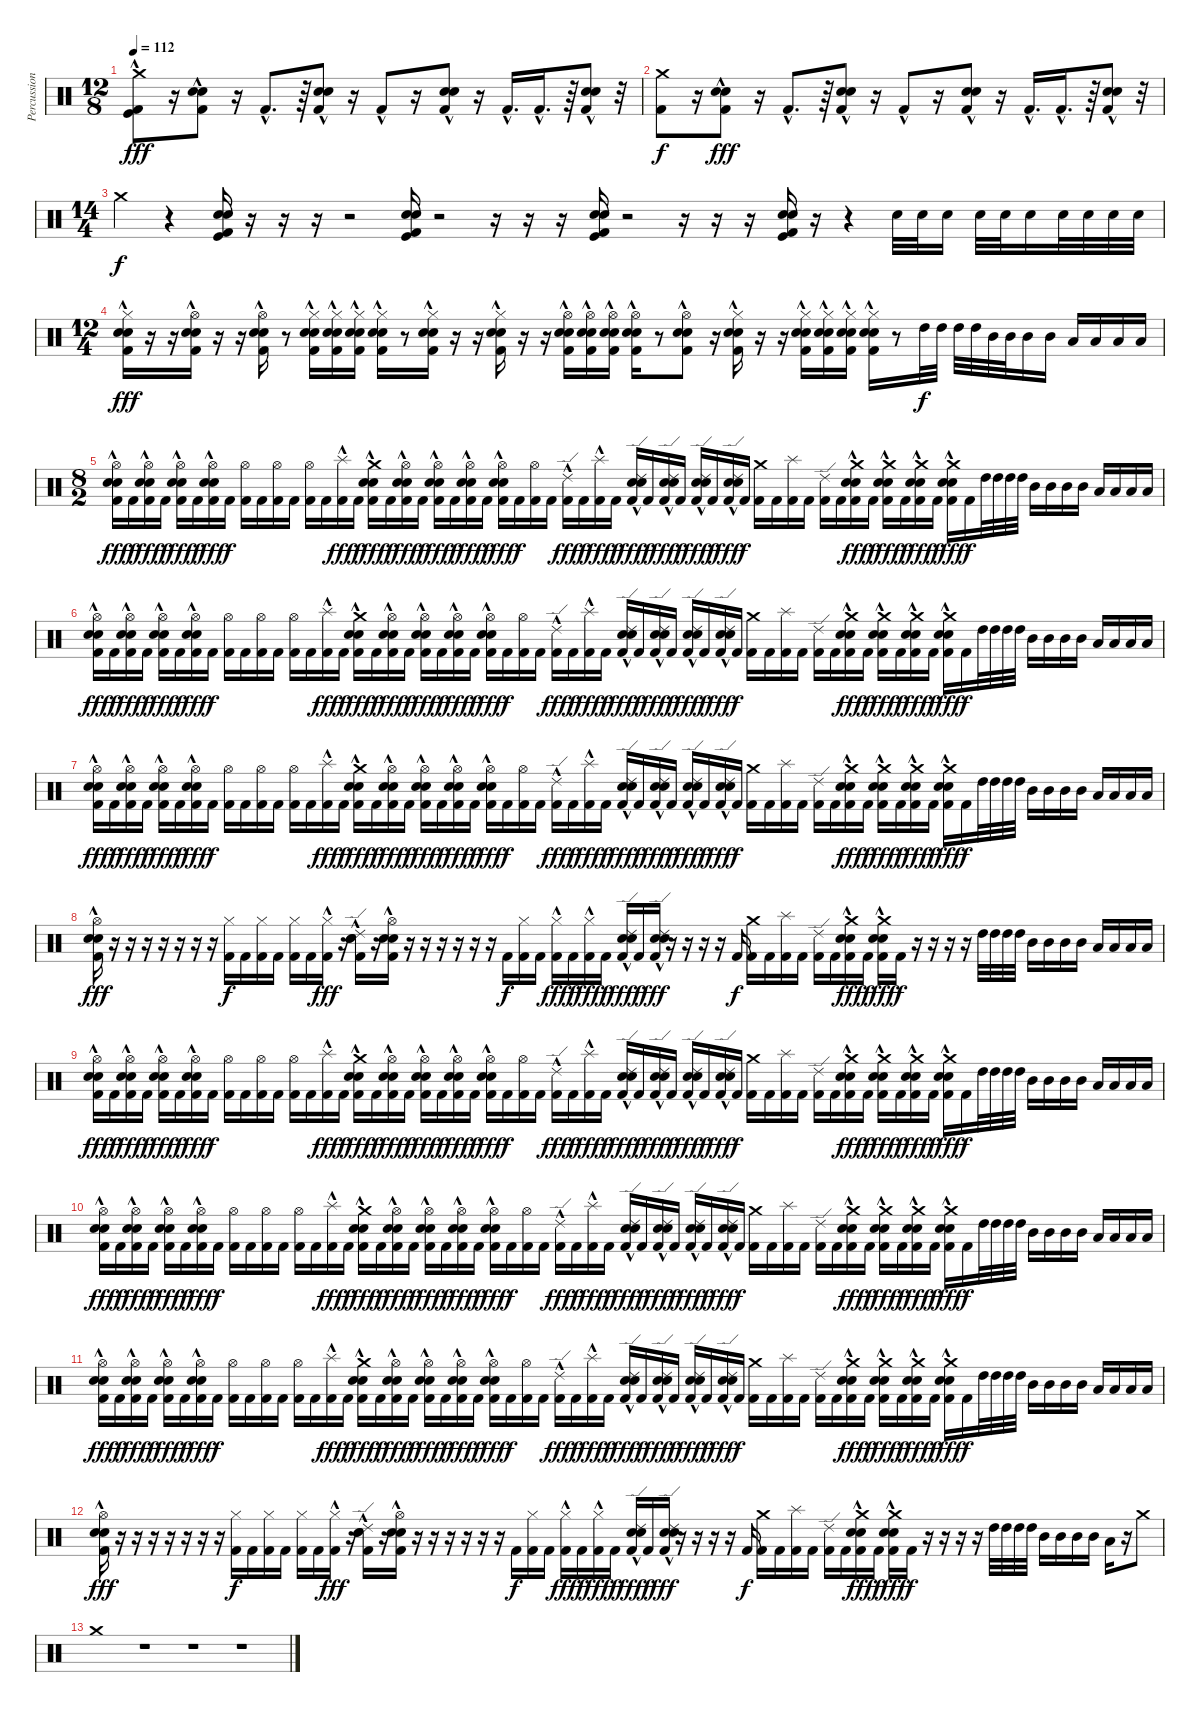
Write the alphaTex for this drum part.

\track ("Percussion" "Percussion") {instrument percussion}
\staff {score}
\articulation defaults
\ts (12 8)
\tempo 112
\clef neutral
\ks c
("Crash medium (hit)"{hac} "Kick (hit)"{hac} "Kick (hit) 2"{hac}).8{dy fff} r.16 ("Electric Snare (hit)"{hac} "Snare (hit) 2"{hac} "Kick (hit) 2").8 r.16 "Kick (hit) 2"{hac}.8{d} r.64 ("Electric Snare (hit)"{hac} "Snare (hit) 2"{hac} "Kick (hit) 2"{hac}).8 r.16 "Kick (hit) 2"{hac}.8 r.16 ("Electric Snare (hit)"{hac} "Snare (hit) 2"{hac} "Kick (hit) 2"{hac}).8 r.16 "Kick (hit) 2"{hac}.16{d} "Kick (hit) 2"{hac}.16{d} r.64 ("Electric Snare (hit)"{hac} "Snare (hit) 2"{hac} "Kick (hit) 2").8 r.32 |
("Crash medium (hit)" "Kick (hit) 2").8{dy f} r.16 ("Electric Snare (hit)"{hac} "Snare (hit) 2"{hac} "Kick (hit) 2").8{dy fff} r.16 "Kick (hit) 2"{hac}.8{d} r.64 ("Electric Snare (hit)"{hac} "Snare (hit) 2"{hac} "Kick (hit) 2"{hac}).8 r.16 "Kick (hit) 2"{hac}.8 r.16 ("Electric Snare (hit)"{hac} "Snare (hit) 2"{hac} "Kick (hit) 2"{hac}).8 r.16 "Kick (hit) 2"{hac}.16{d} "Kick (hit) 2"{hac}.16{d} r.64 ("Electric Snare (hit)"{hac} "Snare (hit) 2"{hac} "Kick (hit) 2").8 r.32 |
\ts (14 4)
"Crash medium (hit)".4{dy f} r.4 ("Kick (hit) 2" "Kick (hit)" "Snare (hit) 2" "Electric Snare (hit)").16 r.16 r.16 r.16 r.2 ("Kick (hit) 2" "Kick (hit)" "Snare (hit) 2" "Electric Snare (hit)").16 r.2 r.16 r.16 r.16 ("Kick (hit) 2" "Kick (hit)" "Snare (hit) 2" "Electric Snare (hit)").16 r.2 r.16 r.16 r.16 ("Electric Snare (hit)" "Kick (hit) 2" "Kick (hit)" "Snare (hit) 2").16 r.16 r.4 "Snare (hit) 2".32 "Snare (hit) 2".32 "Snare (hit) 2".16 "Snare (hit) 2".32 "Snare (hit) 2".32 "Snare (hit) 2".16 "Snare (hit) 2".32 "Snare (hit) 2".32 "Snare (hit) 2".32 "Snare (hit) 2".32 |
\ts (12 4)
("Snare (hit) 2"{hac} "Electric Snare (hit)"{hac} "Hi-Hat (closed)" "Kick (hit) 2").16{dy fff} r.16 r.16 ("Snare (hit) 2"{hac} "Electric Snare (hit)"{hac} "Hi-Hat (open)" "Kick (hit) 2").16 r.16 r.16 ("Snare (hit) 2"{hac} "Electric Snare (hit)"{hac} "Hi-Hat (open)" "Kick (hit) 2").16 r.8 ("Snare (hit) 2"{hac} "Electric Snare (hit)"{hac} "Hi-Hat (closed)" "Kick (hit) 2").16 ("Snare (hit) 2"{hac} "Electric Snare (hit)"{hac} "Hi-Hat (closed)" "Kick (hit) 2").16 ("Snare (hit) 2"{hac} "Electric Snare (hit)"{hac} "Hi-Hat (closed)" "Kick (hit) 2").16 ("Snare (hit) 2"{hac} "Electric Snare (hit)"{hac} "Hi-Hat (closed)" "Kick (hit) 2").16 r.8 ("Snare (hit) 2"{hac} "Electric Snare (hit)"{hac} "Hi-Hat (closed)" "Kick (hit) 2").16 r.16 r.16 ("Electric Snare (hit)"{hac} "Snare (hit) 2"{hac} "Hi-Hat (closed)" "Kick (hit) 2").16 r.16 r.16 ("Snare (hit) 2"{hac} "Electric Snare (hit)"{hac} "Hi-Hat (open)" "Kick (hit) 2").16 ("Snare (hit) 2"{hac} "Electric Snare (hit)"{hac} "Hi-Hat (open)" "Kick (hit) 2").16 ("Snare (hit) 2"{hac} "Electric Snare (hit)"{hac} "Hi-Hat (open)" "Kick (hit) 2").16 ("Snare (hit) 2"{hac} "Electric Snare (hit)"{hac} "Hi-Hat (open)" "Kick (hit) 2").16 r.8 ("Snare (hit) 2"{hac} "Electric Snare (hit)"{hac} "Hi-Hat (open)" "Kick (hit) 2").8 r.16 ("Snare (hit) 2"{hac} "Electric Snare (hit)"{hac} "Hi-Hat (closed)" "Kick (hit) 2").16 r.16 r.16 ("Snare (hit) 2"{hac} "Electric Snare (hit)"{hac} "Hi-Hat (closed)" "Kick (hit) 2").16 ("Snare (hit) 2"{hac} "Electric Snare (hit)"{hac} "Hi-Hat (closed)" "Kick (hit) 2").16 ("Snare (hit) 2"{hac} "Electric Snare (hit)"{hac} "Hi-Hat (closed)" "Kick (hit) 2").16 ("Snare (hit) 2"{hac} "Electric Snare (hit)"{hac} "Hi-Hat (closed)" "Kick (hit) 2").16 r.8 "High Tom (hit)".32{dy f} "High Tom (hit)".32 "High Tom (hit)".32 "High Tom (hit)".32 "Mid Tom (hit)".32 "Mid Tom (hit)".32 "Mid Tom (hit)".16 "Mid Tom (hit)".16 "Low Tom (hit)".16 "Low Tom (hit)".16 "Low Tom (hit)".16 "Low Tom (hit)".16 |
\ts (8 2)
("Hi-Hat (open)" "Electric Snare (hit)"{hac} "Snare (hit) 2"{hac} "Kick (hit) 2").16{dy fff} "Kick (hit) 2".16{dy f} ("Hi-Hat (open)" "Electric Snare (hit)"{hac} "Snare (hit) 2"{hac} "Kick (hit) 2").16{dy fff} "Kick (hit) 2".16{dy f} ("Hi-Hat (open)" "Electric Snare (hit)"{hac} "Snare (hit) 2"{hac} "Kick (hit) 2").16{dy fff} "Kick (hit) 2".16{dy f} ("Hi-Hat (open)" "Electric Snare (hit)"{hac} "Snare (hit) 2"{hac} "Kick (hit) 2").16{dy fff} "Kick (hit) 2".16{dy f} ("Hi-Hat (open)" "Kick (hit) 2").16 "Kick (hit) 2".16 ("Hi-Hat (open)" "Kick (hit) 2").16 "Kick (hit) 2".16 ("Hi-Hat (open)" "Kick (hit) 2").16 "Kick (hit) 2".16 ("Splash (hit)"{hac} "Kick (hit) 2").16{dy fff} "Kick (hit) 2".16{dy f} ("Crash medium (hit)"{hac} "Electric Snare (hit)"{hac} "Snare (hit) 2"{hac} "Kick (hit) 2").16{dy fff} "Kick (hit) 2".16{dy f} ("Hi-Hat (open)" "Electric Snare (hit)"{hac} "Snare (hit) 2"{hac} "Kick (hit) 2").16{dy fff} "Kick (hit) 2".16{dy f} ("Hi-Hat (open)" "Electric Snare (hit)"{hac} "Snare (hit) 2"{hac} "Kick (hit) 2").16{dy fff} "Kick (hit) 2".16{dy f} ("Hi-Hat (open)" "Electric Snare (hit)"{hac} "Snare (hit) 2"{hac} "Kick (hit) 2").16{dy fff} "Kick (hit) 2".16{dy f} ("Hi-Hat (open)" "Electric Snare (hit)"{hac} "Snare (hit) 2"{hac} "Kick (hit) 2").16{dy fff} "Kick (hit) 2".16{dy f} ("Hi-Hat (open)" "Kick (hit) 2").16 "Kick (hit) 2".16 ("Ride (edge) 2"{hac} "Kick (hit) 2").16{dy fff} "Kick (hit) 2".16{dy f} ("Splash (hit)"{hac} "Kick (hit) 2").16{dy fff} "Kick (hit) 2".16{dy f} ("Ride (edge) 2"{hac} "Electric Snare (hit)"{hac} "Snare (hit) 2"{hac} "Kick (hit) 2").16{dy fff} "Kick (hit) 2".16{dy f} ("Ride (edge) 2"{hac} "Electric Snare (hit)"{hac} "Snare (hit) 2"{hac} "Kick (hit) 2").16{dy fff} "Kick (hit) 2".16{dy f} ("Ride (edge) 2"{hac} "Electric Snare (hit)"{hac} "Snare (hit) 2"{hac} "Kick (hit) 2").16{dy fff} "Kick (hit) 2".16{dy f} ("Ride (edge) 2"{hac} "Electric Snare (hit)"{hac} "Snare (hit) 2"{hac} "Kick (hit) 2").16{dy fff} "Kick (hit) 2".16{dy f} ("Crash medium (hit)" "Kick (hit) 2").16 "Kick (hit) 2".16 ("Splash (hit)" "Kick (hit) 2").16 "Kick (hit) 2".16 ("Ride (edge) 2" "Kick (hit) 2").16 "Kick (hit) 2".16 ("Crash medium (hit)" "Electric Snare (hit)"{hac} "Snare (hit) 2"{hac} "Kick (hit) 2").16{dy fff} "Kick (hit) 2".16{dy f} ("Crash medium (hit)" "Electric Snare (hit)"{hac} "Snare (hit) 2"{hac} "Kick (hit) 2").16{dy fff} "Kick (hit) 2".16{dy f} ("Crash medium (hit)" "Electric Snare (hit)"{hac} "Snare (hit) 2"{hac} "Kick (hit) 2").16{dy fff} "Kick (hit) 2".16{dy f} ("Crash medium (hit)" "Electric Snare (hit)"{hac} "Snare (hit) 2"{hac} "Kick (hit) 2").16{dy fff} "Kick (hit) 2".16{dy f} "High Tom (hit)".32 "High Tom (hit)".32 "High Tom (hit)".32 "High Tom (hit)".32 "Mid Tom (hit)".16 "Mid Tom (hit)".16 "Mid Tom (hit)".16 "Mid Tom (hit)".16 "Low Tom (hit)".16 "Low Tom (hit)".16 "Low Tom (hit)".16 "Low Tom (hit)".16 |
("Hi-Hat (open)" "Electric Snare (hit)"{hac} "Snare (hit) 2"{hac} "Kick (hit) 2").16{dy fff} "Kick (hit) 2".16{dy f} ("Hi-Hat (open)" "Electric Snare (hit)"{hac} "Snare (hit) 2"{hac} "Kick (hit) 2").16{dy fff} "Kick (hit) 2".16{dy f} ("Hi-Hat (open)" "Electric Snare (hit)"{hac} "Snare (hit) 2"{hac} "Kick (hit) 2").16{dy fff} "Kick (hit) 2".16{dy f} ("Hi-Hat (open)" "Electric Snare (hit)"{hac} "Snare (hit) 2"{hac} "Kick (hit) 2").16{dy fff} "Kick (hit) 2".16{dy f} ("Hi-Hat (open)" "Kick (hit) 2").16 "Kick (hit) 2".16 ("Hi-Hat (open)" "Kick (hit) 2").16 "Kick (hit) 2".16 ("Hi-Hat (open)" "Kick (hit) 2").16 "Kick (hit) 2".16 ("Splash (hit)"{hac} "Kick (hit) 2").16{dy fff} "Kick (hit) 2".16{dy f} ("Crash medium (hit)"{hac} "Electric Snare (hit)"{hac} "Snare (hit) 2"{hac} "Kick (hit) 2").16{dy fff} "Kick (hit) 2".16{dy f} ("Hi-Hat (open)" "Electric Snare (hit)"{hac} "Snare (hit) 2"{hac} "Kick (hit) 2").16{dy fff} "Kick (hit) 2".16{dy f} ("Hi-Hat (open)" "Electric Snare (hit)"{hac} "Snare (hit) 2"{hac} "Kick (hit) 2").16{dy fff} "Kick (hit) 2".16{dy f} ("Hi-Hat (open)" "Electric Snare (hit)"{hac} "Snare (hit) 2"{hac} "Kick (hit) 2").16{dy fff} "Kick (hit) 2".16{dy f} ("Hi-Hat (open)" "Electric Snare (hit)"{hac} "Snare (hit) 2"{hac} "Kick (hit) 2").16{dy fff} "Kick (hit) 2".16{dy f} ("Hi-Hat (open)" "Kick (hit) 2").16 "Kick (hit) 2".16 ("Ride (edge) 2"{hac} "Kick (hit) 2").16{dy fff} "Kick (hit) 2".16{dy f} ("Splash (hit)"{hac} "Kick (hit) 2").16{dy fff} "Kick (hit) 2".16{dy f} ("Ride (edge) 2"{hac} "Electric Snare (hit)"{hac} "Snare (hit) 2"{hac} "Kick (hit) 2").16{dy fff} "Kick (hit) 2".16{dy f} ("Ride (edge) 2"{hac} "Electric Snare (hit)"{hac} "Snare (hit) 2"{hac} "Kick (hit) 2").16{dy fff} "Kick (hit) 2".16{dy f} ("Ride (edge) 2"{hac} "Electric Snare (hit)"{hac} "Snare (hit) 2"{hac} "Kick (hit) 2").16{dy fff} "Kick (hit) 2".16{dy f} ("Ride (edge) 2"{hac} "Electric Snare (hit)"{hac} "Snare (hit) 2"{hac} "Kick (hit) 2").16{dy fff} "Kick (hit) 2".16{dy f} ("Crash medium (hit)" "Kick (hit) 2").16 "Kick (hit) 2".16 ("Splash (hit)" "Kick (hit) 2").16 "Kick (hit) 2".16 ("Ride (edge) 2" "Kick (hit) 2").16 "Kick (hit) 2".16 ("Crash medium (hit)" "Electric Snare (hit)"{hac} "Snare (hit) 2"{hac} "Kick (hit) 2").16{dy fff} "Kick (hit) 2".16{dy f} ("Crash medium (hit)" "Electric Snare (hit)"{hac} "Snare (hit) 2"{hac} "Kick (hit) 2").16{dy fff} "Kick (hit) 2".16{dy f} ("Crash medium (hit)" "Electric Snare (hit)"{hac} "Snare (hit) 2"{hac} "Kick (hit) 2").16{dy fff} "Kick (hit) 2".16{dy f} ("Crash medium (hit)" "Electric Snare (hit)"{hac} "Snare (hit) 2"{hac} "Kick (hit) 2").16{dy fff} "Kick (hit) 2".16{dy f} "High Tom (hit)".32 "High Tom (hit)".32 "High Tom (hit)".32 "High Tom (hit)".32 "Mid Tom (hit)".16 "Mid Tom (hit)".16 "Mid Tom (hit)".16 "Mid Tom (hit)".16 "Low Tom (hit)".16 "Low Tom (hit)".16 "Low Tom (hit)".16 "Low Tom (hit)".16 |
("Hi-Hat (open)" "Electric Snare (hit)"{hac} "Snare (hit) 2"{hac} "Kick (hit) 2").16{dy fff} "Kick (hit) 2".16{dy f} ("Hi-Hat (open)" "Electric Snare (hit)"{hac} "Snare (hit) 2"{hac} "Kick (hit) 2").16{dy fff} "Kick (hit) 2".16{dy f} ("Hi-Hat (open)" "Electric Snare (hit)"{hac} "Snare (hit) 2"{hac} "Kick (hit) 2").16{dy fff} "Kick (hit) 2".16{dy f} ("Hi-Hat (open)" "Electric Snare (hit)"{hac} "Snare (hit) 2"{hac} "Kick (hit) 2").16{dy fff} "Kick (hit) 2".16{dy f} ("Hi-Hat (open)" "Kick (hit) 2").16 "Kick (hit) 2".16 ("Hi-Hat (open)" "Kick (hit) 2").16 "Kick (hit) 2".16 ("Hi-Hat (open)" "Kick (hit) 2").16 "Kick (hit) 2".16 ("Splash (hit)"{hac} "Kick (hit) 2").16{dy fff} "Kick (hit) 2".16{dy f} ("Crash medium (hit)"{hac} "Electric Snare (hit)"{hac} "Snare (hit) 2"{hac} "Kick (hit) 2").16{dy fff} "Kick (hit) 2".16{dy f} ("Hi-Hat (open)" "Electric Snare (hit)"{hac} "Snare (hit) 2"{hac} "Kick (hit) 2").16{dy fff} "Kick (hit) 2".16{dy f} ("Hi-Hat (open)" "Electric Snare (hit)"{hac} "Snare (hit) 2"{hac} "Kick (hit) 2").16{dy fff} "Kick (hit) 2".16{dy f} ("Hi-Hat (open)" "Electric Snare (hit)"{hac} "Snare (hit) 2"{hac} "Kick (hit) 2").16{dy fff} "Kick (hit) 2".16{dy f} ("Hi-Hat (open)" "Electric Snare (hit)"{hac} "Snare (hit) 2"{hac} "Kick (hit) 2").16{dy fff} "Kick (hit) 2".16{dy f} ("Hi-Hat (open)" "Kick (hit) 2").16 "Kick (hit) 2".16 ("Ride (edge) 2"{hac} "Kick (hit) 2").16{dy fff} "Kick (hit) 2".16{dy f} ("Splash (hit)"{hac} "Kick (hit) 2").16{dy fff} "Kick (hit) 2".16{dy f} ("Ride (edge) 2"{hac} "Electric Snare (hit)"{hac} "Snare (hit) 2"{hac} "Kick (hit) 2").16{dy fff} "Kick (hit) 2".16{dy f} ("Ride (edge) 2"{hac} "Electric Snare (hit)"{hac} "Snare (hit) 2"{hac} "Kick (hit) 2").16{dy fff} "Kick (hit) 2".16{dy f} ("Ride (edge) 2"{hac} "Electric Snare (hit)"{hac} "Snare (hit) 2"{hac} "Kick (hit) 2").16{dy fff} "Kick (hit) 2".16{dy f} ("Ride (edge) 2"{hac} "Electric Snare (hit)"{hac} "Snare (hit) 2"{hac} "Kick (hit) 2").16{dy fff} "Kick (hit) 2".16{dy f} ("Crash medium (hit)" "Kick (hit) 2").16 "Kick (hit) 2".16 ("Splash (hit)" "Kick (hit) 2").16 "Kick (hit) 2".16 ("Ride (edge) 2" "Kick (hit) 2").16 "Kick (hit) 2".16 ("Crash medium (hit)" "Electric Snare (hit)"{hac} "Snare (hit) 2"{hac} "Kick (hit) 2").16{dy fff} "Kick (hit) 2".16{dy f} ("Crash medium (hit)" "Electric Snare (hit)"{hac} "Snare (hit) 2"{hac} "Kick (hit) 2").16{dy fff} "Kick (hit) 2".16{dy f} ("Crash medium (hit)" "Electric Snare (hit)"{hac} "Snare (hit) 2"{hac} "Kick (hit) 2").16{dy fff} "Kick (hit) 2".16{dy f} ("Crash medium (hit)" "Electric Snare (hit)"{hac} "Snare (hit) 2"{hac} "Kick (hit) 2").16{dy fff} "Kick (hit) 2".16{dy f} "High Tom (hit)".32 "High Tom (hit)".32 "High Tom (hit)".32 "High Tom (hit)".32 "Mid Tom (hit)".16 "Mid Tom (hit)".16 "Mid Tom (hit)".16 "Mid Tom (hit)".16 "Low Tom (hit)".16 "Low Tom (hit)".16 "Low Tom (hit)".16 "Low Tom (hit)".16 |
("Hi-Hat (open)" "Electric Snare (hit)"{hac} "Snare (hit) 2"{hac} "Kick (hit) 2").16{dy fff} r.16 r.16 r.16 r.16 r.16 r.16 r.16 ("Hi-Hat (closed)" "Kick (hit) 2").16{dy f} "Kick (hit) 2".16 ("Hi-Hat (closed)" "Kick (hit) 2").16 "Kick (hit) 2".16 ("Hi-Hat (closed)" "Kick (hit) 2").16 "Kick (hit) 2".16 ("Hi-Hat (closed)"{hac} "Kick (hit) 2").16{dy fff} r.16 ("Ride (edge) 2"{hac} "Electric Snare (hit)"{hac} "Snare (hit) 2"{hac} "Kick (hit) 2").16 r.16 ("Hi-Hat (open)" "Electric Snare (hit)"{hac} "Snare (hit) 2"{hac} "Kick (hit) 2").16 r.16 r.16 r.16 r.16 r.16 r.16 "Kick (hit) 2".16{dy f} ("Hi-Hat (closed)" "Kick (hit) 2").16 "Kick (hit) 2".16 ("Hi-Hat (closed)"{hac} "Kick (hit) 2").16{dy fff} "Kick (hit) 2".16{dy f} ("Hi-Hat (closed)"{hac} "Kick (hit) 2").16{dy fff} "Kick (hit) 2".16{dy f} ("Ride (edge) 2"{hac} "Electric Snare (hit)"{hac} "Snare (hit) 2"{hac} "Kick (hit) 2").16{dy fff} "Kick (hit) 2".16{dy f} ("Ride (edge) 2"{hac} "Electric Snare (hit)"{hac} "Snare (hit) 2"{hac} "Kick (hit) 2").16{dy fff} r.16 r.16 r.16 r.16 "Kick (hit) 2".16{dy f} ("Crash medium (hit)" "Kick (hit) 2").16 "Kick (hit) 2".16 ("Splash (hit)" "Kick (hit) 2").16 "Kick (hit) 2".16 ("Ride (edge) 2" "Kick (hit) 2").16 "Kick (hit) 2".16 ("Crash medium (hit)" "Electric Snare (hit)"{hac} "Snare (hit) 2"{hac} "Kick (hit) 2").16{dy fff} "Kick (hit) 2".16{dy f} ("Crash medium (hit)" "Electric Snare (hit)"{hac} "Snare (hit) 2"{hac} "Kick (hit) 2").16{dy fff} "Kick (hit) 2".16{dy f} r.16 r.16 r.16 r.16 "High Tom (hit)".32 "High Tom (hit)".32 "High Tom (hit)".32 "High Tom (hit)".32 "Mid Tom (hit)".16 "Mid Tom (hit)".16 "Mid Tom (hit)".16 "Mid Tom (hit)".16 "Low Tom (hit)".16 "Low Tom (hit)".16 "Low Tom (hit)".16 "Low Tom (hit)".16 |
("Hi-Hat (open)" "Electric Snare (hit)"{hac} "Snare (hit) 2"{hac} "Kick (hit) 2").16{dy fff} "Kick (hit) 2".16{dy f} ("Hi-Hat (open)" "Electric Snare (hit)"{hac} "Snare (hit) 2"{hac} "Kick (hit) 2").16{dy fff} "Kick (hit) 2".16{dy f} ("Hi-Hat (open)" "Electric Snare (hit)"{hac} "Snare (hit) 2"{hac} "Kick (hit) 2").16{dy fff} "Kick (hit) 2".16{dy f} ("Hi-Hat (open)" "Electric Snare (hit)"{hac} "Snare (hit) 2"{hac} "Kick (hit) 2").16{dy fff} "Kick (hit) 2".16{dy f} ("Hi-Hat (open)" "Kick (hit) 2").16 "Kick (hit) 2".16 ("Hi-Hat (open)" "Kick (hit) 2").16 "Kick (hit) 2".16 ("Hi-Hat (open)" "Kick (hit) 2").16 "Kick (hit) 2".16 ("Splash (hit)"{hac} "Kick (hit) 2").16{dy fff} "Kick (hit) 2".16{dy f} ("Crash medium (hit)"{hac} "Electric Snare (hit)"{hac} "Snare (hit) 2"{hac} "Kick (hit) 2").16{dy fff} "Kick (hit) 2".16{dy f} ("Hi-Hat (open)" "Electric Snare (hit)"{hac} "Snare (hit) 2"{hac} "Kick (hit) 2").16{dy fff} "Kick (hit) 2".16{dy f} ("Hi-Hat (open)" "Electric Snare (hit)"{hac} "Snare (hit) 2"{hac} "Kick (hit) 2").16{dy fff} "Kick (hit) 2".16{dy f} ("Hi-Hat (open)" "Electric Snare (hit)"{hac} "Snare (hit) 2"{hac} "Kick (hit) 2").16{dy fff} "Kick (hit) 2".16{dy f} ("Hi-Hat (open)" "Electric Snare (hit)"{hac} "Snare (hit) 2"{hac} "Kick (hit) 2").16{dy fff} "Kick (hit) 2".16{dy f} ("Hi-Hat (open)" "Kick (hit) 2").16 "Kick (hit) 2".16 ("Ride (edge) 2"{hac} "Kick (hit) 2").16{dy fff} "Kick (hit) 2".16{dy f} ("Splash (hit)"{hac} "Kick (hit) 2").16{dy fff} "Kick (hit) 2".16{dy f} ("Ride (edge) 2"{hac} "Electric Snare (hit)"{hac} "Snare (hit) 2"{hac} "Kick (hit) 2").16{dy fff} "Kick (hit) 2".16{dy f} ("Ride (edge) 2"{hac} "Electric Snare (hit)"{hac} "Snare (hit) 2"{hac} "Kick (hit) 2").16{dy fff} "Kick (hit) 2".16{dy f} ("Ride (edge) 2"{hac} "Electric Snare (hit)"{hac} "Snare (hit) 2"{hac} "Kick (hit) 2").16{dy fff} "Kick (hit) 2".16{dy f} ("Ride (edge) 2"{hac} "Electric Snare (hit)"{hac} "Snare (hit) 2"{hac} "Kick (hit) 2").16{dy fff} "Kick (hit) 2".16{dy f} ("Crash medium (hit)" "Kick (hit) 2").16 "Kick (hit) 2".16 ("Splash (hit)" "Kick (hit) 2").16 "Kick (hit) 2".16 ("Ride (edge) 2" "Kick (hit) 2").16 "Kick (hit) 2".16 ("Crash medium (hit)" "Electric Snare (hit)"{hac} "Snare (hit) 2"{hac} "Kick (hit) 2").16{dy fff} "Kick (hit) 2".16{dy f} ("Crash medium (hit)" "Electric Snare (hit)"{hac} "Snare (hit) 2"{hac} "Kick (hit) 2").16{dy fff} "Kick (hit) 2".16{dy f} ("Crash medium (hit)" "Electric Snare (hit)"{hac} "Snare (hit) 2"{hac} "Kick (hit) 2").16{dy fff} "Kick (hit) 2".16{dy f} ("Crash medium (hit)" "Electric Snare (hit)"{hac} "Snare (hit) 2"{hac} "Kick (hit) 2").16{dy fff} "Kick (hit) 2".16{dy f} "High Tom (hit)".32 "High Tom (hit)".32 "High Tom (hit)".32 "High Tom (hit)".32 "Mid Tom (hit)".16 "Mid Tom (hit)".16 "Mid Tom (hit)".16 "Mid Tom (hit)".16 "Low Tom (hit)".16 "Low Tom (hit)".16 "Low Tom (hit)".16 "Low Tom (hit)".16 |
("Hi-Hat (open)" "Electric Snare (hit)"{hac} "Snare (hit) 2"{hac} "Kick (hit) 2").16{dy fff} "Kick (hit) 2".16{dy f} ("Hi-Hat (open)" "Electric Snare (hit)"{hac} "Snare (hit) 2"{hac} "Kick (hit) 2").16{dy fff} "Kick (hit) 2".16{dy f} ("Hi-Hat (open)" "Electric Snare (hit)"{hac} "Snare (hit) 2"{hac} "Kick (hit) 2").16{dy fff} "Kick (hit) 2".16{dy f} ("Hi-Hat (open)" "Electric Snare (hit)"{hac} "Snare (hit) 2"{hac} "Kick (hit) 2").16{dy fff} "Kick (hit) 2".16{dy f} ("Hi-Hat (open)" "Kick (hit) 2").16 "Kick (hit) 2".16 ("Hi-Hat (open)" "Kick (hit) 2").16 "Kick (hit) 2".16 ("Hi-Hat (open)" "Kick (hit) 2").16 "Kick (hit) 2".16 ("Splash (hit)"{hac} "Kick (hit) 2").16{dy fff} "Kick (hit) 2".16{dy f} ("Crash medium (hit)"{hac} "Electric Snare (hit)"{hac} "Snare (hit) 2"{hac} "Kick (hit) 2").16{dy fff} "Kick (hit) 2".16{dy f} ("Hi-Hat (open)" "Electric Snare (hit)"{hac} "Snare (hit) 2"{hac} "Kick (hit) 2").16{dy fff} "Kick (hit) 2".16{dy f} ("Hi-Hat (open)" "Electric Snare (hit)"{hac} "Snare (hit) 2"{hac} "Kick (hit) 2").16{dy fff} "Kick (hit) 2".16{dy f} ("Hi-Hat (open)" "Electric Snare (hit)"{hac} "Snare (hit) 2"{hac} "Kick (hit) 2").16{dy fff} "Kick (hit) 2".16{dy f} ("Hi-Hat (open)" "Electric Snare (hit)"{hac} "Snare (hit) 2"{hac} "Kick (hit) 2").16{dy fff} "Kick (hit) 2".16{dy f} ("Hi-Hat (open)" "Kick (hit) 2").16 "Kick (hit) 2".16 ("Ride (edge) 2"{hac} "Kick (hit) 2").16{dy fff} "Kick (hit) 2".16{dy f} ("Splash (hit)"{hac} "Kick (hit) 2").16{dy fff} "Kick (hit) 2".16{dy f} ("Ride (edge) 2"{hac} "Electric Snare (hit)"{hac} "Snare (hit) 2"{hac} "Kick (hit) 2").16{dy fff} "Kick (hit) 2".16{dy f} ("Ride (edge) 2"{hac} "Electric Snare (hit)"{hac} "Snare (hit) 2"{hac} "Kick (hit) 2").16{dy fff} "Kick (hit) 2".16{dy f} ("Ride (edge) 2"{hac} "Electric Snare (hit)"{hac} "Snare (hit) 2"{hac} "Kick (hit) 2").16{dy fff} "Kick (hit) 2".16{dy f} ("Ride (edge) 2"{hac} "Electric Snare (hit)"{hac} "Snare (hit) 2"{hac} "Kick (hit) 2").16{dy fff} "Kick (hit) 2".16{dy f} ("Crash medium (hit)" "Kick (hit) 2").16 "Kick (hit) 2".16 ("Splash (hit)" "Kick (hit) 2").16 "Kick (hit) 2".16 ("Ride (edge) 2" "Kick (hit) 2").16 "Kick (hit) 2".16 ("Crash medium (hit)" "Electric Snare (hit)"{hac} "Snare (hit) 2"{hac} "Kick (hit) 2").16{dy fff} "Kick (hit) 2".16{dy f} ("Crash medium (hit)" "Electric Snare (hit)"{hac} "Snare (hit) 2"{hac} "Kick (hit) 2").16{dy fff} "Kick (hit) 2".16{dy f} ("Crash medium (hit)" "Electric Snare (hit)"{hac} "Snare (hit) 2"{hac} "Kick (hit) 2").16{dy fff} "Kick (hit) 2".16{dy f} ("Crash medium (hit)" "Electric Snare (hit)"{hac} "Snare (hit) 2"{hac} "Kick (hit) 2").16{dy fff} "Kick (hit) 2".16{dy f} "High Tom (hit)".32 "High Tom (hit)".32 "High Tom (hit)".32 "High Tom (hit)".32 "Mid Tom (hit)".16 "Mid Tom (hit)".16 "Mid Tom (hit)".16 "Mid Tom (hit)".16 "Low Tom (hit)".16 "Low Tom (hit)".16 "Low Tom (hit)".16 "Low Tom (hit)".16 |
("Hi-Hat (open)" "Electric Snare (hit)"{hac} "Snare (hit) 2"{hac} "Kick (hit) 2").16{dy fff} "Kick (hit) 2".16{dy f} ("Hi-Hat (open)" "Electric Snare (hit)"{hac} "Snare (hit) 2"{hac} "Kick (hit) 2").16{dy fff} "Kick (hit) 2".16{dy f} ("Hi-Hat (open)" "Electric Snare (hit)"{hac} "Snare (hit) 2"{hac} "Kick (hit) 2").16{dy fff} "Kick (hit) 2".16{dy f} ("Hi-Hat (open)" "Electric Snare (hit)"{hac} "Snare (hit) 2"{hac} "Kick (hit) 2").16{dy fff} "Kick (hit) 2".16{dy f} ("Hi-Hat (open)" "Kick (hit) 2").16 "Kick (hit) 2".16 ("Hi-Hat (open)" "Kick (hit) 2").16 "Kick (hit) 2".16 ("Hi-Hat (open)" "Kick (hit) 2").16 "Kick (hit) 2".16 ("Splash (hit)"{hac} "Kick (hit) 2").16{dy fff} "Kick (hit) 2".16{dy f} ("Crash medium (hit)"{hac} "Electric Snare (hit)"{hac} "Snare (hit) 2"{hac} "Kick (hit) 2").16{dy fff} "Kick (hit) 2".16{dy f} ("Hi-Hat (open)" "Electric Snare (hit)"{hac} "Snare (hit) 2"{hac} "Kick (hit) 2").16{dy fff} "Kick (hit) 2".16{dy f} ("Hi-Hat (open)" "Electric Snare (hit)"{hac} "Snare (hit) 2"{hac} "Kick (hit) 2").16{dy fff} "Kick (hit) 2".16{dy f} ("Hi-Hat (open)" "Electric Snare (hit)"{hac} "Snare (hit) 2"{hac} "Kick (hit) 2").16{dy fff} "Kick (hit) 2".16{dy f} ("Hi-Hat (open)" "Electric Snare (hit)"{hac} "Snare (hit) 2"{hac} "Kick (hit) 2").16{dy fff} "Kick (hit) 2".16{dy f} ("Hi-Hat (open)" "Kick (hit) 2").16 "Kick (hit) 2".16 ("Ride (edge) 2"{hac} "Kick (hit) 2").16{dy fff} "Kick (hit) 2".16{dy f} ("Splash (hit)"{hac} "Kick (hit) 2").16{dy fff} "Kick (hit) 2".16{dy f} ("Ride (edge) 2"{hac} "Electric Snare (hit)"{hac} "Snare (hit) 2"{hac} "Kick (hit) 2").16{dy fff} "Kick (hit) 2".16{dy f} ("Ride (edge) 2"{hac} "Electric Snare (hit)"{hac} "Snare (hit) 2"{hac} "Kick (hit) 2").16{dy fff} "Kick (hit) 2".16{dy f} ("Ride (edge) 2"{hac} "Electric Snare (hit)"{hac} "Snare (hit) 2"{hac} "Kick (hit) 2").16{dy fff} "Kick (hit) 2".16{dy f} ("Ride (edge) 2"{hac} "Electric Snare (hit)"{hac} "Snare (hit) 2"{hac} "Kick (hit) 2").16{dy fff} "Kick (hit) 2".16{dy f} ("Crash medium (hit)" "Kick (hit) 2").16 "Kick (hit) 2".16 ("Splash (hit)" "Kick (hit) 2").16 "Kick (hit) 2".16 ("Ride (edge) 2" "Kick (hit) 2").16 "Kick (hit) 2".16 ("Crash medium (hit)" "Electric Snare (hit)"{hac} "Snare (hit) 2"{hac} "Kick (hit) 2").16{dy fff} "Kick (hit) 2".16{dy f} ("Crash medium (hit)" "Electric Snare (hit)"{hac} "Snare (hit) 2"{hac} "Kick (hit) 2").16{dy fff} "Kick (hit) 2".16{dy f} ("Crash medium (hit)" "Electric Snare (hit)"{hac} "Snare (hit) 2"{hac} "Kick (hit) 2").16{dy fff} "Kick (hit) 2".16{dy f} ("Crash medium (hit)" "Electric Snare (hit)"{hac} "Snare (hit) 2"{hac} "Kick (hit) 2").16{dy fff} "Kick (hit) 2".16{dy f} "High Tom (hit)".32 "High Tom (hit)".32 "High Tom (hit)".32 "High Tom (hit)".32 "Mid Tom (hit)".16 "Mid Tom (hit)".16 "Mid Tom (hit)".16 "Mid Tom (hit)".16 "Low Tom (hit)".16 "Low Tom (hit)".16 "Low Tom (hit)".16 "Low Tom (hit)".16 |
("Hi-Hat (open)" "Electric Snare (hit)"{hac} "Snare (hit) 2"{hac} "Kick (hit) 2").16{dy fff} r.16 r.16 r.16 r.16 r.16 r.16 r.16 ("Hi-Hat (closed)" "Kick (hit) 2").16{dy f} "Kick (hit) 2".16 ("Hi-Hat (closed)" "Kick (hit) 2").16 "Kick (hit) 2".16 ("Hi-Hat (closed)" "Kick (hit) 2").16 "Kick (hit) 2".16 ("Hi-Hat (closed)"{hac} "Kick (hit) 2").16{dy fff} r.16 ("Ride (edge) 2"{hac} "Electric Snare (hit)"{hac} "Snare (hit) 2"{hac} "Kick (hit) 2").16 r.16 ("Hi-Hat (open)" "Electric Snare (hit)"{hac} "Snare (hit) 2"{hac} "Kick (hit) 2").16 r.16 r.16 r.16 r.16 r.16 r.16 "Kick (hit) 2".16{dy f} ("Hi-Hat (closed)" "Kick (hit) 2").16 "Kick (hit) 2".16 ("Hi-Hat (closed)"{hac} "Kick (hit) 2").16{dy fff} "Kick (hit) 2".16{dy f} ("Hi-Hat (closed)"{hac} "Kick (hit) 2").16{dy fff} "Kick (hit) 2".16{dy f} ("Ride (edge) 2"{hac} "Electric Snare (hit)"{hac} "Snare (hit) 2"{hac} "Kick (hit) 2").16{dy fff} "Kick (hit) 2".16{dy f} ("Ride (edge) 2"{hac} "Electric Snare (hit)"{hac} "Snare (hit) 2"{hac} "Kick (hit) 2").16{dy fff} r.16 r.16 r.16 r.16 "Kick (hit) 2".16{dy f} ("Crash medium (hit)" "Kick (hit) 2").16 "Kick (hit) 2".16 ("Splash (hit)" "Kick (hit) 2").16 "Kick (hit) 2".16 ("Ride (edge) 2" "Kick (hit) 2").16 "Kick (hit) 2".16 ("Crash medium (hit)" "Electric Snare (hit)"{hac} "Snare (hit) 2"{hac} "Kick (hit) 2").16{dy fff} "Kick (hit) 2".16{dy f} ("Crash medium (hit)" "Electric Snare (hit)"{hac} "Snare (hit) 2"{hac} "Kick (hit) 2").16{dy fff} "Kick (hit) 2".16{dy f} r.16 r.16 r.16 r.16 "High Tom (hit)".32 "High Tom (hit)".32 "High Tom (hit)".32 "High Tom (hit)".32 "Mid Tom (hit)".16 "Mid Tom (hit)".16 "Mid Tom (hit)".16 "Mid Tom (hit)".16 "Low Tom (hit)".16 r.16 "Crash medium (hit)".8 |
"Crash medium (hit)".1 r.1 r.1 r.1
